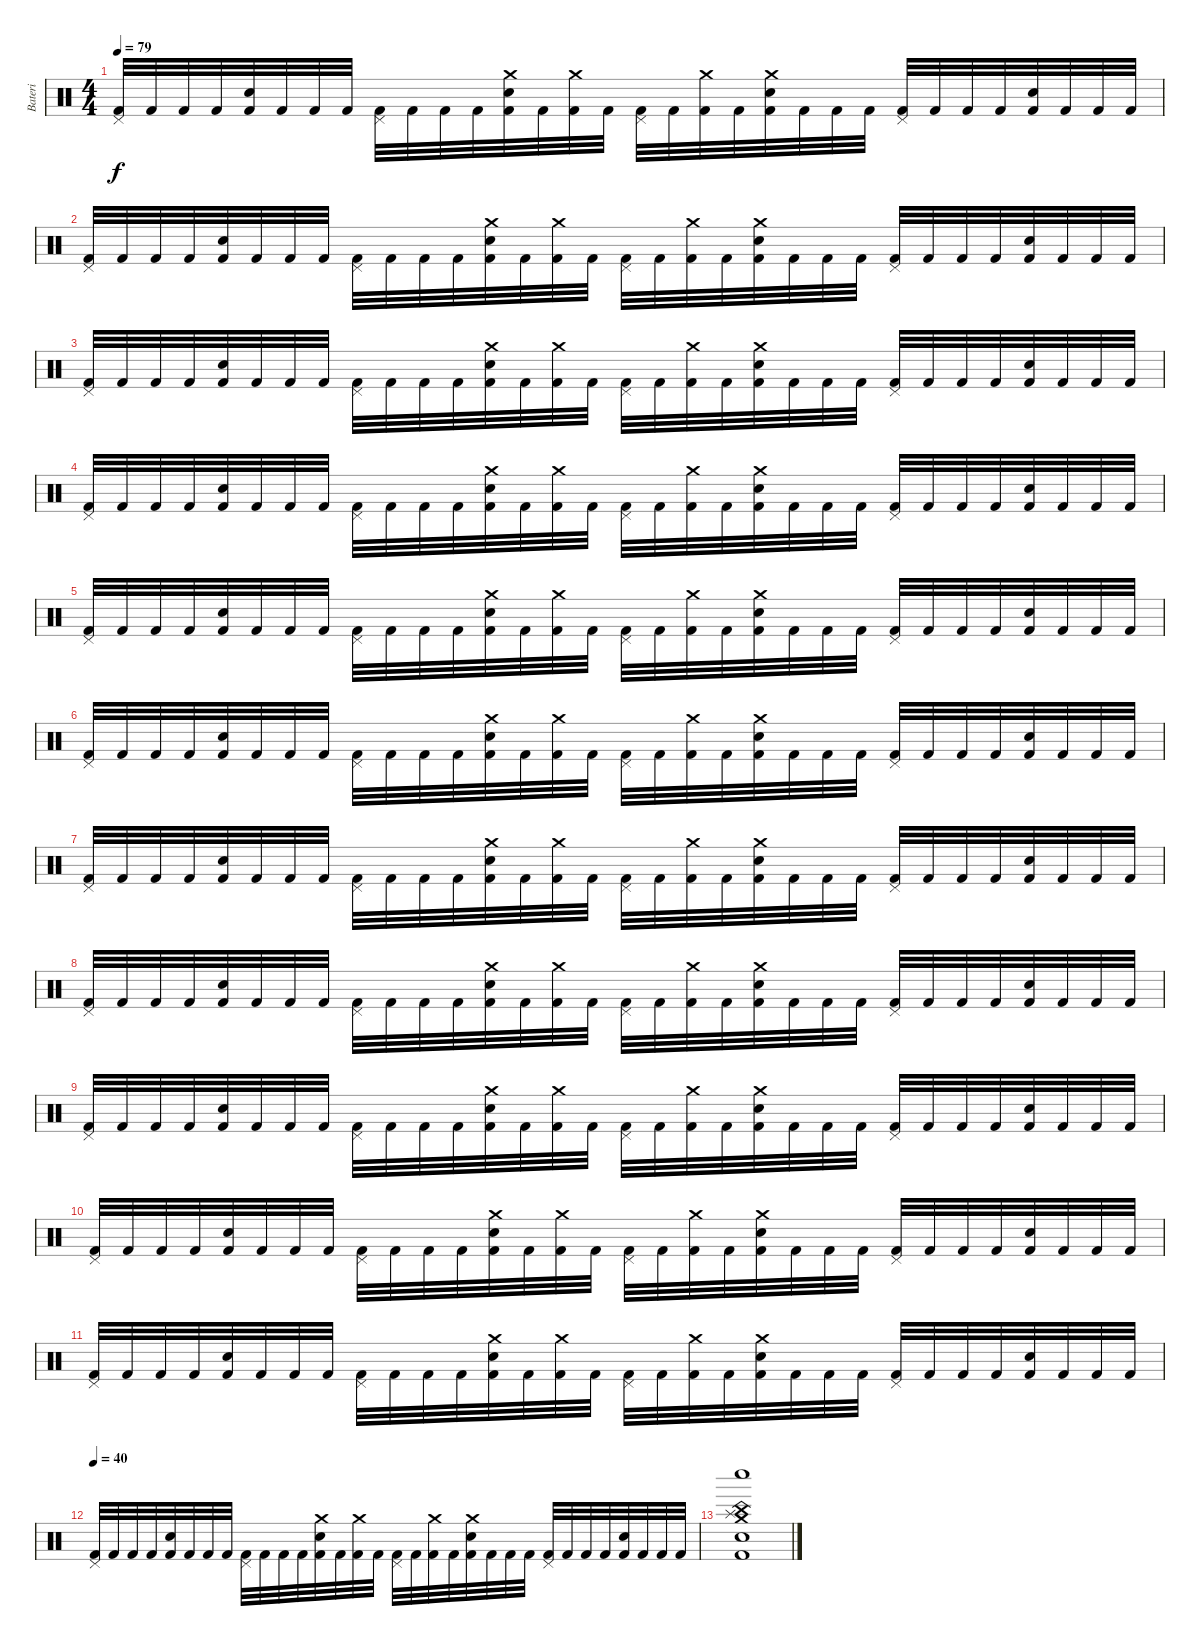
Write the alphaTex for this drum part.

\track ("Bateri" "Bateri") {instrument percussion}
\staff {score}
\articulation defaults
\ts (4 4)
\tempo 79
\clef neutral
\ks c
("Pedal Hi-Hat (hit)" "Kick (hit) 2").32{dy f} "Kick (hit) 2".32 "Kick (hit) 2".32 "Kick (hit) 2".32 ("Electric Snare (hit)" "Kick (hit) 2").32 "Kick (hit) 2".32 "Kick (hit) 2".32 "Kick (hit) 2".32 ("Pedal Hi-Hat (hit)" "Kick (hit) 2").32 "Kick (hit) 2".32 "Kick (hit) 2".32 "Kick (hit) 2".32 ("Crash medium (hit)" "Electric Snare (hit)" "Kick (hit) 2").32 "Kick (hit) 2".32 ("Crash medium (hit)" "Kick (hit) 2").32 "Kick (hit) 2".32 ("Pedal Hi-Hat (hit)" "Kick (hit) 2").32 "Kick (hit) 2".32 ("Crash medium (hit)" "Kick (hit) 2").32 "Kick (hit) 2".32 ("Crash medium (hit)" "Electric Snare (hit)" "Kick (hit) 2").32 "Kick (hit) 2".32 "Kick (hit) 2".32 "Kick (hit) 2".32 ("Pedal Hi-Hat (hit)" "Kick (hit) 2").32 "Kick (hit) 2".32 "Kick (hit) 2".32 "Kick (hit) 2".32 ("Electric Snare (hit)" "Kick (hit) 2").32 "Kick (hit) 2".32 "Kick (hit) 2".32 "Kick (hit) 2".32 |
("Pedal Hi-Hat (hit)" "Kick (hit) 2").32 "Kick (hit) 2".32 "Kick (hit) 2".32 "Kick (hit) 2".32 ("Electric Snare (hit)" "Kick (hit) 2").32 "Kick (hit) 2".32 "Kick (hit) 2".32 "Kick (hit) 2".32 ("Pedal Hi-Hat (hit)" "Kick (hit) 2").32 "Kick (hit) 2".32 "Kick (hit) 2".32 "Kick (hit) 2".32 ("Crash medium (hit)" "Electric Snare (hit)" "Kick (hit) 2").32 "Kick (hit) 2".32 ("Crash medium (hit)" "Kick (hit) 2").32 "Kick (hit) 2".32 ("Pedal Hi-Hat (hit)" "Kick (hit) 2").32 "Kick (hit) 2".32 ("Crash medium (hit)" "Kick (hit) 2").32 "Kick (hit) 2".32 ("Crash medium (hit)" "Electric Snare (hit)" "Kick (hit) 2").32 "Kick (hit) 2".32 "Kick (hit) 2".32 "Kick (hit) 2".32 ("Pedal Hi-Hat (hit)" "Kick (hit) 2").32 "Kick (hit) 2".32 "Kick (hit) 2".32 "Kick (hit) 2".32 ("Electric Snare (hit)" "Kick (hit) 2").32 "Kick (hit) 2".32 "Kick (hit) 2".32 "Kick (hit) 2".32 |
("Pedal Hi-Hat (hit)" "Kick (hit) 2").32 "Kick (hit) 2".32 "Kick (hit) 2".32 "Kick (hit) 2".32 ("Electric Snare (hit)" "Kick (hit) 2").32 "Kick (hit) 2".32 "Kick (hit) 2".32 "Kick (hit) 2".32 ("Pedal Hi-Hat (hit)" "Kick (hit) 2").32 "Kick (hit) 2".32 "Kick (hit) 2".32 "Kick (hit) 2".32 ("Crash medium (hit)" "Electric Snare (hit)" "Kick (hit) 2").32 "Kick (hit) 2".32 ("Crash medium (hit)" "Kick (hit) 2").32 "Kick (hit) 2".32 ("Pedal Hi-Hat (hit)" "Kick (hit) 2").32 "Kick (hit) 2".32 ("Crash medium (hit)" "Kick (hit) 2").32 "Kick (hit) 2".32 ("Crash medium (hit)" "Electric Snare (hit)" "Kick (hit) 2").32 "Kick (hit) 2".32 "Kick (hit) 2".32 "Kick (hit) 2".32 ("Pedal Hi-Hat (hit)" "Kick (hit) 2").32 "Kick (hit) 2".32 "Kick (hit) 2".32 "Kick (hit) 2".32 ("Electric Snare (hit)" "Kick (hit) 2").32 "Kick (hit) 2".32 "Kick (hit) 2".32 "Kick (hit) 2".32 |
("Pedal Hi-Hat (hit)" "Kick (hit) 2").32 "Kick (hit) 2".32 "Kick (hit) 2".32 "Kick (hit) 2".32 ("Electric Snare (hit)" "Kick (hit) 2").32 "Kick (hit) 2".32 "Kick (hit) 2".32 "Kick (hit) 2".32 ("Pedal Hi-Hat (hit)" "Kick (hit) 2").32 "Kick (hit) 2".32 "Kick (hit) 2".32 "Kick (hit) 2".32 ("Crash medium (hit)" "Electric Snare (hit)" "Kick (hit) 2").32 "Kick (hit) 2".32 ("Crash medium (hit)" "Kick (hit) 2").32 "Kick (hit) 2".32 ("Pedal Hi-Hat (hit)" "Kick (hit) 2").32 "Kick (hit) 2".32 ("Crash medium (hit)" "Kick (hit) 2").32 "Kick (hit) 2".32 ("Crash medium (hit)" "Electric Snare (hit)" "Kick (hit) 2").32 "Kick (hit) 2".32 "Kick (hit) 2".32 "Kick (hit) 2".32 ("Pedal Hi-Hat (hit)" "Kick (hit) 2").32 "Kick (hit) 2".32 "Kick (hit) 2".32 "Kick (hit) 2".32 ("Electric Snare (hit)" "Kick (hit) 2").32 "Kick (hit) 2".32 "Kick (hit) 2".32 "Kick (hit) 2".32 |
("Pedal Hi-Hat (hit)" "Kick (hit) 2").32 "Kick (hit) 2".32 "Kick (hit) 2".32 "Kick (hit) 2".32 ("Electric Snare (hit)" "Kick (hit) 2").32 "Kick (hit) 2".32 "Kick (hit) 2".32 "Kick (hit) 2".32 ("Pedal Hi-Hat (hit)" "Kick (hit) 2").32 "Kick (hit) 2".32 "Kick (hit) 2".32 "Kick (hit) 2".32 ("Crash medium (hit)" "Electric Snare (hit)" "Kick (hit) 2").32 "Kick (hit) 2".32 ("Crash medium (hit)" "Kick (hit) 2").32 "Kick (hit) 2".32 ("Pedal Hi-Hat (hit)" "Kick (hit) 2").32 "Kick (hit) 2".32 ("Crash medium (hit)" "Kick (hit) 2").32 "Kick (hit) 2".32 ("Crash medium (hit)" "Electric Snare (hit)" "Kick (hit) 2").32 "Kick (hit) 2".32 "Kick (hit) 2".32 "Kick (hit) 2".32 ("Pedal Hi-Hat (hit)" "Kick (hit) 2").32 "Kick (hit) 2".32 "Kick (hit) 2".32 "Kick (hit) 2".32 ("Electric Snare (hit)" "Kick (hit) 2").32 "Kick (hit) 2".32 "Kick (hit) 2".32 "Kick (hit) 2".32 |
("Pedal Hi-Hat (hit)" "Kick (hit) 2").32 "Kick (hit) 2".32 "Kick (hit) 2".32 "Kick (hit) 2".32 ("Electric Snare (hit)" "Kick (hit) 2").32 "Kick (hit) 2".32 "Kick (hit) 2".32 "Kick (hit) 2".32 ("Pedal Hi-Hat (hit)" "Kick (hit) 2").32 "Kick (hit) 2".32 "Kick (hit) 2".32 "Kick (hit) 2".32 ("Crash medium (hit)" "Electric Snare (hit)" "Kick (hit) 2").32 "Kick (hit) 2".32 ("Crash medium (hit)" "Kick (hit) 2").32 "Kick (hit) 2".32 ("Pedal Hi-Hat (hit)" "Kick (hit) 2").32 "Kick (hit) 2".32 ("Crash medium (hit)" "Kick (hit) 2").32 "Kick (hit) 2".32 ("Crash medium (hit)" "Electric Snare (hit)" "Kick (hit) 2").32 "Kick (hit) 2".32 "Kick (hit) 2".32 "Kick (hit) 2".32 ("Pedal Hi-Hat (hit)" "Kick (hit) 2").32 "Kick (hit) 2".32 "Kick (hit) 2".32 "Kick (hit) 2".32 ("Electric Snare (hit)" "Kick (hit) 2").32 "Kick (hit) 2".32 "Kick (hit) 2".32 "Kick (hit) 2".32 |
("Pedal Hi-Hat (hit)" "Kick (hit) 2").32 "Kick (hit) 2".32 "Kick (hit) 2".32 "Kick (hit) 2".32 ("Electric Snare (hit)" "Kick (hit) 2").32 "Kick (hit) 2".32 "Kick (hit) 2".32 "Kick (hit) 2".32 ("Pedal Hi-Hat (hit)" "Kick (hit) 2").32 "Kick (hit) 2".32 "Kick (hit) 2".32 "Kick (hit) 2".32 ("Crash medium (hit)" "Electric Snare (hit)" "Kick (hit) 2").32 "Kick (hit) 2".32 ("Crash medium (hit)" "Kick (hit) 2").32 "Kick (hit) 2".32 ("Pedal Hi-Hat (hit)" "Kick (hit) 2").32 "Kick (hit) 2".32 ("Crash medium (hit)" "Kick (hit) 2").32 "Kick (hit) 2".32 ("Crash medium (hit)" "Electric Snare (hit)" "Kick (hit) 2").32 "Kick (hit) 2".32 "Kick (hit) 2".32 "Kick (hit) 2".32 ("Pedal Hi-Hat (hit)" "Kick (hit) 2").32 "Kick (hit) 2".32 "Kick (hit) 2".32 "Kick (hit) 2".32 ("Electric Snare (hit)" "Kick (hit) 2").32 "Kick (hit) 2".32 "Kick (hit) 2".32 "Kick (hit) 2".32 |
("Pedal Hi-Hat (hit)" "Kick (hit) 2").32 "Kick (hit) 2".32 "Kick (hit) 2".32 "Kick (hit) 2".32 ("Electric Snare (hit)" "Kick (hit) 2").32 "Kick (hit) 2".32 "Kick (hit) 2".32 "Kick (hit) 2".32 ("Pedal Hi-Hat (hit)" "Kick (hit) 2").32 "Kick (hit) 2".32 "Kick (hit) 2".32 "Kick (hit) 2".32 ("Crash medium (hit)" "Electric Snare (hit)" "Kick (hit) 2").32 "Kick (hit) 2".32 ("Crash medium (hit)" "Kick (hit) 2").32 "Kick (hit) 2".32 ("Pedal Hi-Hat (hit)" "Kick (hit) 2").32 "Kick (hit) 2".32 ("Crash medium (hit)" "Kick (hit) 2").32 "Kick (hit) 2".32 ("Crash medium (hit)" "Electric Snare (hit)" "Kick (hit) 2").32 "Kick (hit) 2".32 "Kick (hit) 2".32 "Kick (hit) 2".32 ("Pedal Hi-Hat (hit)" "Kick (hit) 2").32 "Kick (hit) 2".32 "Kick (hit) 2".32 "Kick (hit) 2".32 ("Electric Snare (hit)" "Kick (hit) 2").32 "Kick (hit) 2".32 "Kick (hit) 2".32 "Kick (hit) 2".32 |
("Pedal Hi-Hat (hit)" "Kick (hit) 2").32 "Kick (hit) 2".32 "Kick (hit) 2".32 "Kick (hit) 2".32 ("Electric Snare (hit)" "Kick (hit) 2").32 "Kick (hit) 2".32 "Kick (hit) 2".32 "Kick (hit) 2".32 ("Pedal Hi-Hat (hit)" "Kick (hit) 2").32 "Kick (hit) 2".32 "Kick (hit) 2".32 "Kick (hit) 2".32 ("Crash medium (hit)" "Electric Snare (hit)" "Kick (hit) 2").32 "Kick (hit) 2".32 ("Crash medium (hit)" "Kick (hit) 2").32 "Kick (hit) 2".32 ("Pedal Hi-Hat (hit)" "Kick (hit) 2").32 "Kick (hit) 2".32 ("Crash medium (hit)" "Kick (hit) 2").32 "Kick (hit) 2".32 ("Crash medium (hit)" "Electric Snare (hit)" "Kick (hit) 2").32 "Kick (hit) 2".32 "Kick (hit) 2".32 "Kick (hit) 2".32 ("Pedal Hi-Hat (hit)" "Kick (hit) 2").32 "Kick (hit) 2".32 "Kick (hit) 2".32 "Kick (hit) 2".32 ("Electric Snare (hit)" "Kick (hit) 2").32 "Kick (hit) 2".32 "Kick (hit) 2".32 "Kick (hit) 2".32 |
("Pedal Hi-Hat (hit)" "Kick (hit) 2").32 "Kick (hit) 2".32 "Kick (hit) 2".32 "Kick (hit) 2".32 ("Electric Snare (hit)" "Kick (hit) 2").32 "Kick (hit) 2".32 "Kick (hit) 2".32 "Kick (hit) 2".32 ("Pedal Hi-Hat (hit)" "Kick (hit) 2").32 "Kick (hit) 2".32 "Kick (hit) 2".32 "Kick (hit) 2".32 ("Crash medium (hit)" "Electric Snare (hit)" "Kick (hit) 2").32 "Kick (hit) 2".32 ("Crash medium (hit)" "Kick (hit) 2").32 "Kick (hit) 2".32 ("Pedal Hi-Hat (hit)" "Kick (hit) 2").32 "Kick (hit) 2".32 ("Crash medium (hit)" "Kick (hit) 2").32 "Kick (hit) 2".32 ("Crash medium (hit)" "Electric Snare (hit)" "Kick (hit) 2").32 "Kick (hit) 2".32 "Kick (hit) 2".32 "Kick (hit) 2".32 ("Pedal Hi-Hat (hit)" "Kick (hit) 2").32 "Kick (hit) 2".32 "Kick (hit) 2".32 "Kick (hit) 2".32 ("Electric Snare (hit)" "Kick (hit) 2").32 "Kick (hit) 2".32 "Kick (hit) 2".32 "Kick (hit) 2".32 |
("Pedal Hi-Hat (hit)" "Kick (hit) 2").32 "Kick (hit) 2".32 "Kick (hit) 2".32 "Kick (hit) 2".32 ("Electric Snare (hit)" "Kick (hit) 2").32 "Kick (hit) 2".32 "Kick (hit) 2".32 "Kick (hit) 2".32 ("Pedal Hi-Hat (hit)" "Kick (hit) 2").32 "Kick (hit) 2".32 "Kick (hit) 2".32 "Kick (hit) 2".32 ("Crash medium (hit)" "Electric Snare (hit)" "Kick (hit) 2").32 "Kick (hit) 2".32 ("Crash medium (hit)" "Kick (hit) 2").32 "Kick (hit) 2".32 ("Pedal Hi-Hat (hit)" "Kick (hit) 2").32 "Kick (hit) 2".32 ("Crash medium (hit)" "Kick (hit) 2").32 "Kick (hit) 2".32 ("Crash medium (hit)" "Electric Snare (hit)" "Kick (hit) 2").32 "Kick (hit) 2".32 "Kick (hit) 2".32 "Kick (hit) 2".32 ("Pedal Hi-Hat (hit)" "Kick (hit) 2").32 "Kick (hit) 2".32 "Kick (hit) 2".32 "Kick (hit) 2".32 ("Electric Snare (hit)" "Kick (hit) 2").32 "Kick (hit) 2".32 "Kick (hit) 2".32 "Kick (hit) 2".32 |
\tempo 40
("Pedal Hi-Hat (hit)" "Kick (hit) 2").32 "Kick (hit) 2".32 "Kick (hit) 2".32 "Kick (hit) 2".32 ("Electric Snare (hit)" "Kick (hit) 2").32 "Kick (hit) 2".32 "Kick (hit) 2".32 "Kick (hit) 2".32 ("Pedal Hi-Hat (hit)" "Kick (hit) 2").32 "Kick (hit) 2".32 "Kick (hit) 2".32 "Kick (hit) 2".32 ("Crash medium (hit)" "Electric Snare (hit)" "Kick (hit) 2").32 "Kick (hit) 2".32 ("Crash medium (hit)" "Kick (hit) 2").32 "Kick (hit) 2".32 ("Pedal Hi-Hat (hit)" "Kick (hit) 2").32 "Kick (hit) 2".32 ("Crash medium (hit)" "Kick (hit) 2").32 "Kick (hit) 2".32 ("Crash medium (hit)" "Electric Snare (hit)" "Kick (hit) 2").32 "Kick (hit) 2".32 "Kick (hit) 2".32 "Kick (hit) 2".32 ("Pedal Hi-Hat (hit)" "Kick (hit) 2").32 "Kick (hit) 2".32 "Kick (hit) 2".32 "Kick (hit) 2".32 ("Electric Snare (hit)" "Kick (hit) 2").32 "Kick (hit) 2".32 "Kick (hit) 2".32 "Kick (hit) 2".32 |
("Splash (hit)" "Whistle low (hit)" "Crash medium (hit)" "China (hit)" "Electric Snare (hit)" "Kick (hit) 2").1
